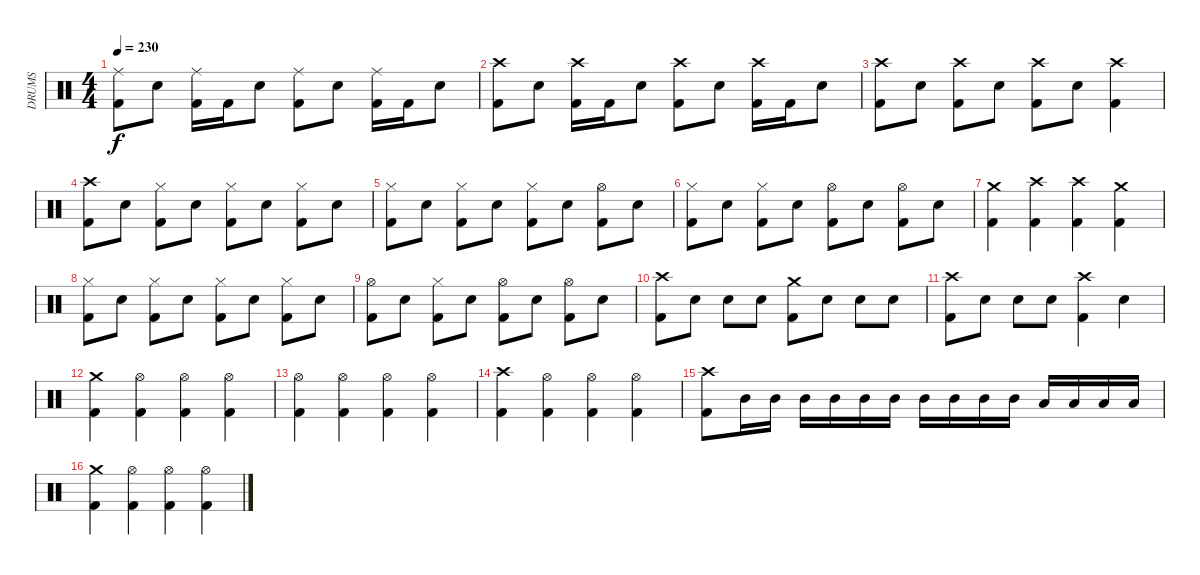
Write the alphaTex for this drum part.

\track ("DRUMS" "DRUMS") {instrument percussion}
\staff {score}
\articulation defaults
\ts (4 4)
\tempo 230
\clef neutral
\ks c
("Kick (hit) 2" "Ride (middle)").8{dy f} "Snare (hit) 2".8 ("Kick (hit) 2" "Ride (middle)").16 "Kick (hit) 2".16 "Snare (hit) 2".8 ("Kick (hit) 2" "Ride (middle)").8 "Snare (hit) 2".8 ("Kick (hit) 2" "Ride (middle)").16 "Kick (hit) 2".16 "Snare (hit) 2".8 |
("Kick (hit) 2" "Crash high (hit)").8 "Snare (hit) 2".8 ("Kick (hit) 2" "Crash high (hit)").16 "Kick (hit) 2".16 "Snare (hit) 2".8 ("Kick (hit) 2" "Crash high (hit)").8 "Snare (hit) 2".8 ("Kick (hit) 2" "Crash high (hit)").16 "Kick (hit) 2".16 "Snare (hit) 2".8 |
("Kick (hit) 2" "Crash high (hit)").8 "Snare (hit) 2".8 ("Kick (hit) 2" "Crash high (hit)").8 "Snare (hit) 2".8 ("Kick (hit) 2" "Crash high (hit)").8 "Snare (hit) 2".8 ("Kick (hit) 2" "Crash high (hit)").4 |
("Kick (hit) 2" "Crash high (hit)").8 "Snare (hit) 2".8 ("Kick (hit) 2" "Hi-Hat (closed)").8 "Snare (hit) 2".8 ("Kick (hit) 2" "Hi-Hat (closed)").8 "Snare (hit) 2".8 ("Kick (hit) 2" "Hi-Hat (closed)").8 "Snare (hit) 2".8 |
("Kick (hit) 2" "Hi-Hat (closed)").8 "Snare (hit) 2".8 ("Kick (hit) 2" "Hi-Hat (closed)").8 "Snare (hit) 2".8 ("Kick (hit) 2" "Hi-Hat (closed)").8 "Snare (hit) 2".8 ("Kick (hit) 2" "Hi-Hat (open)").8 "Snare (hit) 2".8 |
("Kick (hit) 2" "Hi-Hat (closed)").8 "Snare (hit) 2".8 ("Kick (hit) 2" "Hi-Hat (closed)").8 "Snare (hit) 2".8 ("Kick (hit) 2" "Hi-Hat (open)").8 "Snare (hit) 2".8 ("Kick (hit) 2" "Hi-Hat (open)").8 "Snare (hit) 2".8 |
("Kick (hit) 2" "Crash medium (hit)").4 ("Kick (hit) 2" "Crash high (hit)").4 ("Kick (hit) 2" "Crash high (hit)").4 ("Kick (hit) 2" "Crash medium (hit)").4 |
("Kick (hit) 2" "Hi-Hat (closed)").8 "Snare (hit) 2".8 ("Kick (hit) 2" "Hi-Hat (closed)").8 "Snare (hit) 2".8 ("Kick (hit) 2" "Hi-Hat (closed)").8 "Snare (hit) 2".8 ("Kick (hit) 2" "Hi-Hat (closed)").8 "Snare (hit) 2".8 |
("Kick (hit) 2" "Hi-Hat (open)").8 "Snare (hit) 2".8 ("Kick (hit) 2" "Hi-Hat (closed)").8 "Snare (hit) 2".8 ("Kick (hit) 2" "Hi-Hat (open)").8 "Snare (hit) 2".8 ("Kick (hit) 2" "Hi-Hat (open)").8 "Snare (hit) 2".8 |
("Kick (hit) 2" "Crash high (hit)").8 "Snare (hit) 2".8 "Snare (hit) 2".8 "Snare (hit) 2".8 ("Kick (hit) 2" "Crash medium (hit)").8 "Snare (hit) 2".8 "Snare (hit) 2".8 "Snare (hit) 2".8 |
("Kick (hit) 2" "Crash high (hit)").8 "Snare (hit) 2".8 "Snare (hit) 2".8 "Snare (hit) 2".8 ("Kick (hit) 2" "Crash high (hit)").4 "Snare (hit) 2".4 |
("Kick (hit) 2" "Crash medium (hit)").4 ("Kick (hit) 2" "Hi-Hat (open)").4 ("Kick (hit) 2" "Hi-Hat (open)").4 ("Kick (hit) 2" "Hi-Hat (open)").4 |
("Kick (hit) 2" "Hi-Hat (open)").4 ("Kick (hit) 2" "Hi-Hat (open)").4 ("Kick (hit) 2" "Hi-Hat (open)").4 ("Kick (hit) 2" "Hi-Hat (open)").4 |
("Kick (hit) 2" "Crash high (hit)").4 ("Kick (hit) 2" "Hi-Hat (open)").4 ("Kick (hit) 2" "Hi-Hat (open)").4 ("Kick (hit) 2" "Hi-Hat (open)").4 |
("Kick (hit) 2" "Crash high (hit)").8 "Mid Tom (hit)".16 "Mid Tom (hit)".16 "Mid Tom (hit)".16 "Mid Tom (hit)".16 "Mid Tom (hit)".16 "Mid Tom (hit)".16 "Mid Tom (hit)".16 "Mid Tom (hit)".16 "Mid Tom (hit)".16 "Mid Tom (hit)".16 "Low Tom (hit)".16 "Low Tom (hit)".16 "Low Tom (hit)".16 "Low Tom (hit)".16 |
("Kick (hit) 2" "Crash medium (hit)").4 ("Kick (hit) 2" "Hi-Hat (open)").4 ("Kick (hit) 2" "Hi-Hat (open)").4 ("Kick (hit) 2" "Hi-Hat (open)").4
